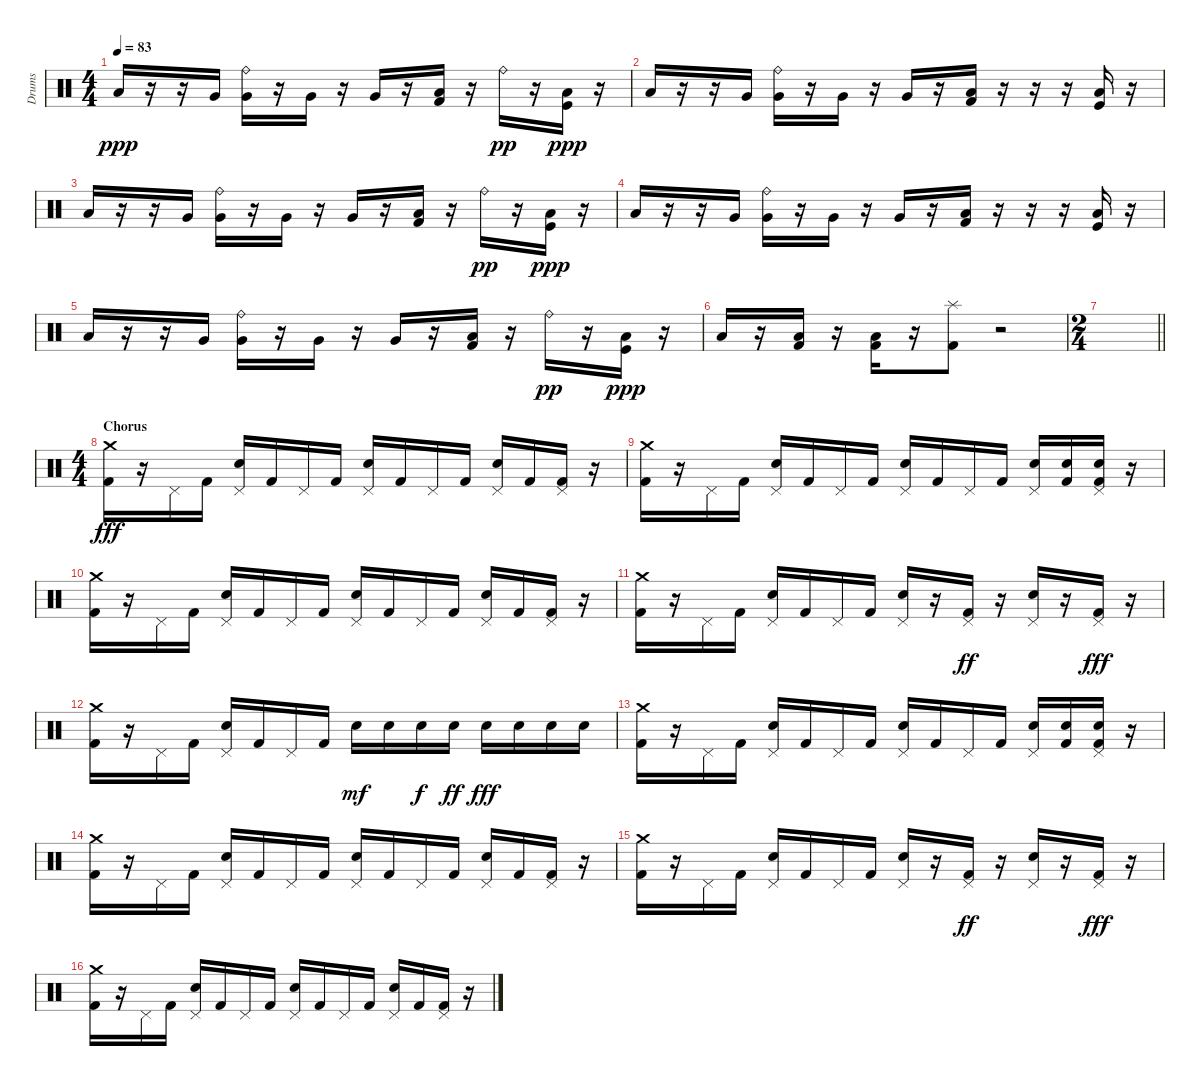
\track ("Drums" "Drums") {instrument percussion}
\staff {score}
\articulation defaults
\ts (4 4)
\tempo 83
\clef neutral
\ks c "Low Tom (hit)".16{dy ppp}
r.16 r.16 "Very Low Tom (hit)".16 ("Ride (bell)" "Very Low Tom (hit)").16 r.16 "Very Low Tom (hit)".16 r.16 "Very Low Tom (hit)".16 r.16 ("Low Floor Tom (hit)" "Kick (hit) 2").16 r.16 "Ride (bell)".16{dy pp} r.16 ("Low Floor Tom (hit)" "Kick (hit)").16{dy ppp} r.16 |
"Low Tom (hit)".16 r.16 r.16 "Very Low Tom (hit)".16 ("Ride (bell)" "Very Low Tom (hit)").16 r.16 "Very Low Tom (hit)".16 r.16 "Very Low Tom (hit)".16 r.16 ("Low Floor Tom (hit)" "Kick (hit) 2").16 r.16 r.16 r.16 ("Low Floor Tom (hit)" "Kick (hit)").16 r.16 |
"Low Tom (hit)".16 r.16 r.16 "Very Low Tom (hit)".16 ("Ride (bell)" "Very Low Tom (hit)").16 r.16 "Very Low Tom (hit)".16 r.16 "Very Low Tom (hit)".16 r.16 ("Low Floor Tom (hit)" "Kick (hit) 2").16 r.16 "Ride (bell)".16{dy pp} r.16 ("Low Floor Tom (hit)" "Kick (hit)").16{dy ppp} r.16 |
"Low Tom (hit)".16 r.16 r.16 "Very Low Tom (hit)".16 ("Ride (bell)" "Very Low Tom (hit)").16 r.16 "Very Low Tom (hit)".16 r.16 "Very Low Tom (hit)".16 r.16 ("Low Floor Tom (hit)" "Kick (hit) 2").16 r.16 r.16 r.16 ("Low Floor Tom (hit)" "Kick (hit)").16 r.16 |
"Low Tom (hit)".16 r.16 r.16 "Very Low Tom (hit)".16 ("Ride (bell)" "Very Low Tom (hit)").16 r.16 "Very Low Tom (hit)".16 r.16 "Very Low Tom (hit)".16 r.16 ("Low Floor Tom (hit)" "Kick (hit) 2").16 r.16 "Ride (bell)".16{dy pp} r.16 ("Low Floor Tom (hit)" "Kick (hit)").16{dy ppp} r.16 |
"Low Tom (hit)".16 r.16 ("Low Floor Tom (hit)" "Kick (hit) 2").16 r.16 ("Low Floor Tom (hit)" "Kick (hit) 2").16 r.16 ("Splash (hit)" "Kick (hit) 2").8 r.2 |
\ts (2 4)
\barLineRight lightlight
|
\ts (4 4)
\section ("" "Chorus")
("Crash medium (hit)" "Kick (hit) 2").16{dy fff} r.16 "Pedal Hi-Hat (hit)".16 "Kick (hit) 2".16 ("Pedal Hi-Hat (hit)" "Snare (hit) 2").16 "Kick (hit) 2".16 "Pedal Hi-Hat (hit)".16 "Kick (hit) 2".16 ("Pedal Hi-Hat (hit)" "Snare (hit) 2").16 "Kick (hit) 2".16 "Pedal Hi-Hat (hit)".16 "Kick (hit) 2".16 ("Pedal Hi-Hat (hit)" "Snare (hit) 2").16 "Kick (hit) 2".16 ("Pedal Hi-Hat (hit)" "Kick (hit) 2").16 r.16 |
("Crash medium (hit)" "Kick (hit) 2").16 r.16 "Pedal Hi-Hat (hit)".16 "Kick (hit) 2".16 ("Pedal Hi-Hat (hit)" "Snare (hit) 2").16 "Kick (hit) 2".16 "Pedal Hi-Hat (hit)".16 "Kick (hit) 2".16 ("Pedal Hi-Hat (hit)" "Snare (hit) 2").16 "Kick (hit) 2".16 "Pedal Hi-Hat (hit)".16 "Kick (hit) 2".16 ("Pedal Hi-Hat (hit)" "Snare (hit) 2").16 ("Snare (hit) 2" "Kick (hit) 2").16 ("Pedal Hi-Hat (hit)" "Snare (hit) 2" "Kick (hit) 2").16 r.16 |
("Crash medium (hit)" "Kick (hit) 2").16 r.16 "Pedal Hi-Hat (hit)".16 "Kick (hit) 2".16 ("Pedal Hi-Hat (hit)" "Snare (hit) 2").16 "Kick (hit) 2".16 "Pedal Hi-Hat (hit)".16 "Kick (hit) 2".16 ("Pedal Hi-Hat (hit)" "Snare (hit) 2").16 "Kick (hit) 2".16 "Pedal Hi-Hat (hit)".16 "Kick (hit) 2".16 ("Pedal Hi-Hat (hit)" "Snare (hit) 2").16 "Kick (hit) 2".16 ("Pedal Hi-Hat (hit)" "Kick (hit) 2").16 r.16 |
("Crash medium (hit)" "Kick (hit) 2").16 r.16 "Pedal Hi-Hat (hit)".16 "Kick (hit) 2".16 ("Pedal Hi-Hat (hit)" "Snare (hit) 2").16 "Kick (hit) 2".16 "Pedal Hi-Hat (hit)".16 "Kick (hit) 2".16 ("Pedal Hi-Hat (hit)" "Snare (hit) 2").16 r.16 ("Pedal Hi-Hat (hit)" "Kick (hit) 2").16{dy ff} r.16 ("Pedal Hi-Hat (hit)" "Snare (hit) 2").16 r.16 ("Pedal Hi-Hat (hit)" "Kick (hit) 2").16{dy fff} r.16 |
("Crash medium (hit)" "Kick (hit) 2").16 r.16 "Pedal Hi-Hat (hit)".16 "Kick (hit) 2".16 ("Pedal Hi-Hat (hit)" "Snare (hit) 2").16 "Kick (hit) 2".16 "Pedal Hi-Hat (hit)".16 "Kick (hit) 2".16 "Snare (hit) 2".16{dy mf} "Snare (hit) 2".16 "Snare (hit) 2".16{dy f} "Snare (hit) 2".16{dy ff} "Snare (hit) 2".16{dy fff} "Snare (hit) 2".16 "Snare (hit) 2".16 "Snare (hit) 2".16 |
("Crash medium (hit)" "Kick (hit) 2").16 r.16 "Pedal Hi-Hat (hit)".16 "Kick (hit) 2".16 ("Pedal Hi-Hat (hit)" "Snare (hit) 2").16 "Kick (hit) 2".16 "Pedal Hi-Hat (hit)".16 "Kick (hit) 2".16 ("Pedal Hi-Hat (hit)" "Snare (hit) 2").16 "Kick (hit) 2".16 "Pedal Hi-Hat (hit)".16 "Kick (hit) 2".16 ("Pedal Hi-Hat (hit)" "Snare (hit) 2").16 ("Snare (hit) 2" "Kick (hit) 2").16 ("Pedal Hi-Hat (hit)" "Snare (hit) 2" "Kick (hit) 2").16 r.16 |
("Crash medium (hit)" "Kick (hit) 2").16 r.16 "Pedal Hi-Hat (hit)".16 "Kick (hit) 2".16 ("Pedal Hi-Hat (hit)" "Snare (hit) 2").16 "Kick (hit) 2".16 "Pedal Hi-Hat (hit)".16 "Kick (hit) 2".16 ("Pedal Hi-Hat (hit)" "Snare (hit) 2").16 "Kick (hit) 2".16 "Pedal Hi-Hat (hit)".16 "Kick (hit) 2".16 ("Pedal Hi-Hat (hit)" "Snare (hit) 2").16 "Kick (hit) 2".16 ("Pedal Hi-Hat (hit)" "Kick (hit) 2").16 r.16 |
("Crash medium (hit)" "Kick (hit) 2").16 r.16 "Pedal Hi-Hat (hit)".16 "Kick (hit) 2".16 ("Pedal Hi-Hat (hit)" "Snare (hit) 2").16 "Kick (hit) 2".16 "Pedal Hi-Hat (hit)".16 "Kick (hit) 2".16 ("Pedal Hi-Hat (hit)" "Snare (hit) 2").16 r.16 ("Pedal Hi-Hat (hit)" "Kick (hit) 2").16{dy ff} r.16 ("Pedal Hi-Hat (hit)" "Snare (hit) 2").16 r.16 ("Pedal Hi-Hat (hit)" "Kick (hit) 2").16{dy fff} r.16 |
("Crash medium (hit)" "Kick (hit) 2").16 r.16 "Pedal Hi-Hat (hit)".16 "Kick (hit) 2".16 ("Pedal Hi-Hat (hit)" "Snare (hit) 2").16 "Kick (hit) 2".16 "Pedal Hi-Hat (hit)".16 "Kick (hit) 2".16 ("Pedal Hi-Hat (hit)" "Snare (hit) 2").16 "Kick (hit) 2".16 "Pedal Hi-Hat (hit)".16 "Kick (hit) 2".16 ("Pedal Hi-Hat (hit)" "Snare (hit) 2").16 "Kick (hit) 2".16 ("Pedal Hi-Hat (hit)" "Kick (hit) 2").16 r.16
